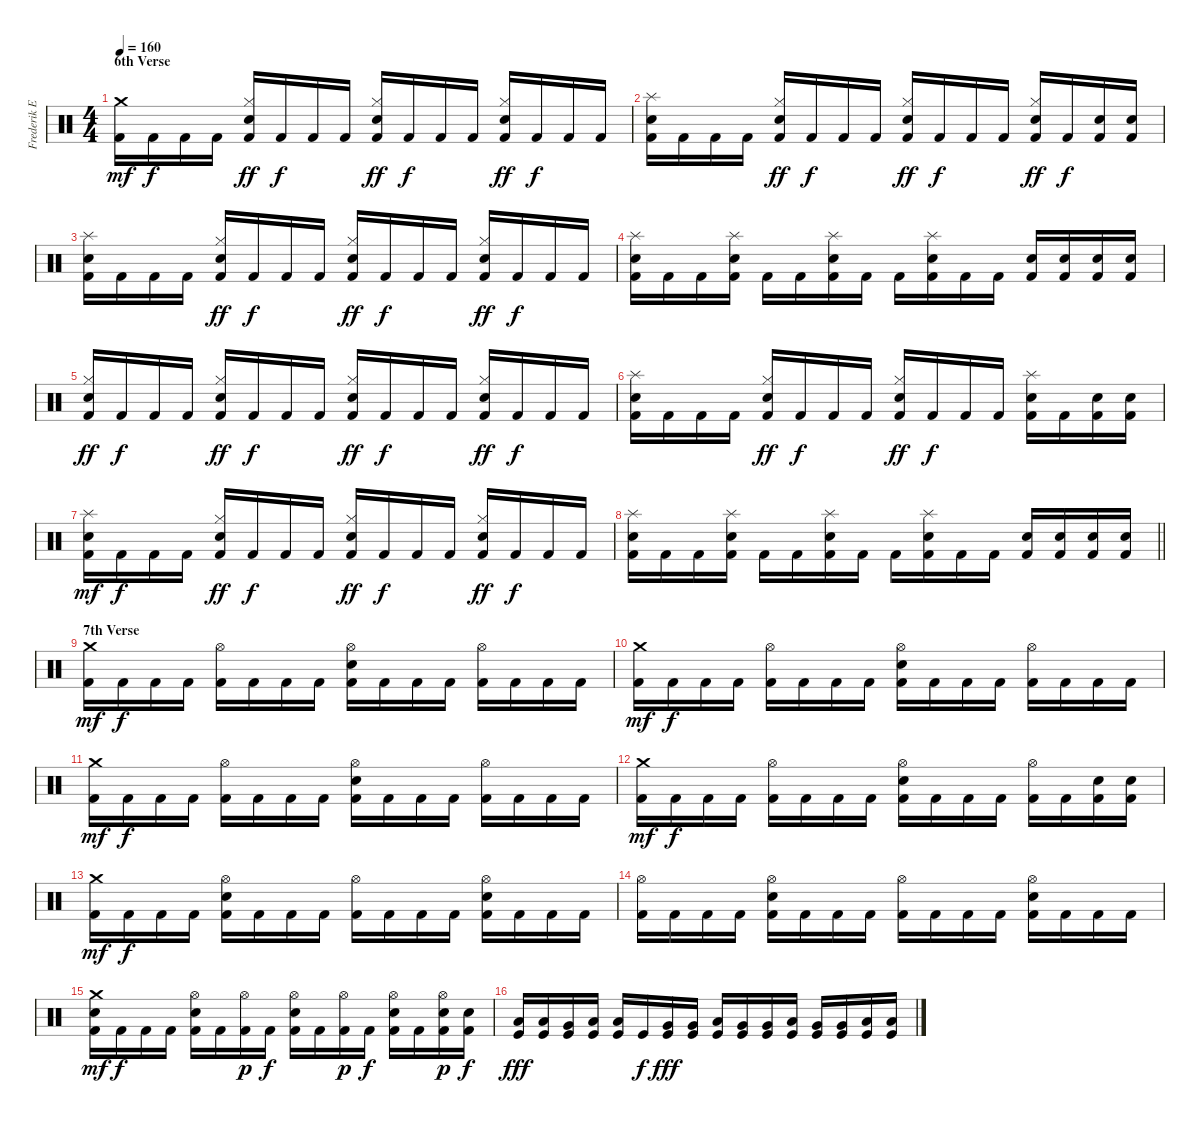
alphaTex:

\track ("Frederik Ehmke" "Frederik E") {instrument percussion}
\staff {score}
\articulation defaults
\ts (4 4)
\section ("" "6th Verse")
\tempo 160
\clef neutral
\ks c
("Crash medium (hit)" "Kick (hit) 2").16{dy mf} "Kick (hit) 2".16{dy f} "Kick (hit) 2".16 "Kick (hit) 2".16 ("Hi-Hat (closed)" "Electric Snare (hit)" "Kick (hit) 2").16{dy ff} "Kick (hit) 2".16{dy f} "Kick (hit) 2".16 "Kick (hit) 2".16 ("Hi-Hat (closed)" "Electric Snare (hit)" "Kick (hit) 2").16{dy ff} "Kick (hit) 2".16{dy f} "Kick (hit) 2".16 "Kick (hit) 2".16 ("Hi-Hat (closed)" "Electric Snare (hit)" "Kick (hit) 2").16{dy ff} "Kick (hit) 2".16{dy f} "Kick (hit) 2".16 "Kick (hit) 2".16 |
("Splash (hit)" "Electric Snare (hit)" "Kick (hit) 2").16 "Kick (hit) 2".16 "Kick (hit) 2".16 "Kick (hit) 2".16 ("Hi-Hat (closed)" "Electric Snare (hit)" "Kick (hit) 2").16{dy ff} "Kick (hit) 2".16{dy f} "Kick (hit) 2".16 "Kick (hit) 2".16 ("Hi-Hat (closed)" "Electric Snare (hit)" "Kick (hit) 2").16{dy ff} "Kick (hit) 2".16{dy f} "Kick (hit) 2".16 "Kick (hit) 2".16 ("Hi-Hat (closed)" "Electric Snare (hit)" "Kick (hit) 2").16{dy ff} "Kick (hit) 2".16{dy f} ("Electric Snare (hit)" "Kick (hit) 2").16 ("Electric Snare (hit)" "Kick (hit) 2").16 |
("Splash (hit)" "Electric Snare (hit)" "Kick (hit) 2").16 "Kick (hit) 2".16 "Kick (hit) 2".16 "Kick (hit) 2".16 ("Hi-Hat (closed)" "Electric Snare (hit)" "Kick (hit) 2").16{dy ff} "Kick (hit) 2".16{dy f} "Kick (hit) 2".16 "Kick (hit) 2".16 ("Hi-Hat (closed)" "Electric Snare (hit)" "Kick (hit) 2").16{dy ff} "Kick (hit) 2".16{dy f} "Kick (hit) 2".16 "Kick (hit) 2".16 ("Hi-Hat (closed)" "Electric Snare (hit)" "Kick (hit) 2").16{dy ff} "Kick (hit) 2".16{dy f} "Kick (hit) 2".16 "Kick (hit) 2".16 |
("Splash (hit)" "Electric Snare (hit)" "Kick (hit) 2").16 "Kick (hit) 2".16 "Kick (hit) 2".16 ("Splash (hit)" "Electric Snare (hit)" "Kick (hit) 2").16 "Kick (hit) 2".16 "Kick (hit) 2".16 ("Splash (hit)" "Electric Snare (hit)" "Kick (hit) 2").16 "Kick (hit) 2".16 "Kick (hit) 2".16 ("Splash (hit)" "Electric Snare (hit)" "Kick (hit) 2").16 "Kick (hit) 2".16 "Kick (hit) 2".16 ("Electric Snare (hit)" "Kick (hit) 2").16 ("Electric Snare (hit)" "Kick (hit) 2").16 ("Electric Snare (hit)" "Kick (hit) 2").16 ("Electric Snare (hit)" "Kick (hit) 2").16 |
("Hi-Hat (closed)" "Electric Snare (hit)" "Kick (hit) 2").16{dy ff} "Kick (hit) 2".16{dy f} "Kick (hit) 2".16 "Kick (hit) 2".16 ("Hi-Hat (closed)" "Electric Snare (hit)" "Kick (hit) 2").16{dy ff} "Kick (hit) 2".16{dy f} "Kick (hit) 2".16 "Kick (hit) 2".16 ("Hi-Hat (closed)" "Electric Snare (hit)" "Kick (hit) 2").16{dy ff} "Kick (hit) 2".16{dy f} "Kick (hit) 2".16 "Kick (hit) 2".16 ("Hi-Hat (closed)" "Electric Snare (hit)" "Kick (hit) 2").16{dy ff} "Kick (hit) 2".16{dy f} "Kick (hit) 2".16 "Kick (hit) 2".16 |
("Splash (hit)" "Electric Snare (hit)" "Kick (hit) 2").16 "Kick (hit) 2".16 "Kick (hit) 2".16 "Kick (hit) 2".16 ("Hi-Hat (closed)" "Electric Snare (hit)" "Kick (hit) 2").16{dy ff} "Kick (hit) 2".16{dy f} "Kick (hit) 2".16 "Kick (hit) 2".16 ("Hi-Hat (closed)" "Electric Snare (hit)" "Kick (hit) 2").16{dy ff} "Kick (hit) 2".16{dy f} "Kick (hit) 2".16 "Kick (hit) 2".16 ("Splash (hit)" "Electric Snare (hit)" "Kick (hit) 2").16 "Kick (hit) 2".16 ("Electric Snare (hit)" "Kick (hit) 2").16 ("Electric Snare (hit)" "Kick (hit) 2").16 |
("Splash (hit)" "Electric Snare (hit)" "Kick (hit) 2").16{dy mf} "Kick (hit) 2".16{dy f} "Kick (hit) 2".16 "Kick (hit) 2".16 ("Hi-Hat (closed)" "Electric Snare (hit)" "Kick (hit) 2").16{dy ff} "Kick (hit) 2".16{dy f} "Kick (hit) 2".16 "Kick (hit) 2".16 ("Hi-Hat (closed)" "Electric Snare (hit)" "Kick (hit) 2").16{dy ff} "Kick (hit) 2".16{dy f} "Kick (hit) 2".16 "Kick (hit) 2".16 ("Hi-Hat (closed)" "Electric Snare (hit)" "Kick (hit) 2").16{dy ff} "Kick (hit) 2".16{dy f} "Kick (hit) 2".16 "Kick (hit) 2".16 |
\barLineRight lightlight
("Splash (hit)" "Electric Snare (hit)" "Kick (hit) 2").16 "Kick (hit) 2".16 "Kick (hit) 2".16 ("Splash (hit)" "Electric Snare (hit)" "Kick (hit) 2").16 "Kick (hit) 2".16 "Kick (hit) 2".16 ("Splash (hit)" "Electric Snare (hit)" "Kick (hit) 2").16 "Kick (hit) 2".16 "Kick (hit) 2".16 ("Splash (hit)" "Electric Snare (hit)" "Kick (hit) 2").16 "Kick (hit) 2".16 "Kick (hit) 2".16 ("Electric Snare (hit)" "Kick (hit) 2").16 ("Electric Snare (hit)" "Kick (hit) 2").16 ("Electric Snare (hit)" "Kick (hit) 2").16 ("Electric Snare (hit)" "Kick (hit) 2").16 |
\section ("" "7th Verse")
("Crash medium (hit)" "Kick (hit) 2").16{dy mf} "Kick (hit) 2".16{dy f} "Kick (hit) 2".16 "Kick (hit) 2".16 ("Hi-Hat (open)" "Kick (hit) 2").16 "Kick (hit) 2".16 "Kick (hit) 2".16 "Kick (hit) 2".16 ("Hi-Hat (open)" "Electric Snare (hit)" "Kick (hit) 2").16 "Kick (hit) 2".16 "Kick (hit) 2".16 "Kick (hit) 2".16 ("Hi-Hat (open)" "Kick (hit) 2").16 "Kick (hit) 2".16 "Kick (hit) 2".16 "Kick (hit) 2".16 |
("Crash medium (hit)" "Kick (hit) 2").16{dy mf} "Kick (hit) 2".16{dy f} "Kick (hit) 2".16 "Kick (hit) 2".16 ("Hi-Hat (open)" "Kick (hit) 2").16 "Kick (hit) 2".16 "Kick (hit) 2".16 "Kick (hit) 2".16 ("Hi-Hat (open)" "Electric Snare (hit)" "Kick (hit) 2").16 "Kick (hit) 2".16 "Kick (hit) 2".16 "Kick (hit) 2".16 ("Hi-Hat (open)" "Kick (hit) 2").16 "Kick (hit) 2".16 "Kick (hit) 2".16 "Kick (hit) 2".16 |
("Crash medium (hit)" "Kick (hit) 2").16{dy mf} "Kick (hit) 2".16{dy f} "Kick (hit) 2".16 "Kick (hit) 2".16 ("Hi-Hat (open)" "Kick (hit) 2").16 "Kick (hit) 2".16 "Kick (hit) 2".16 "Kick (hit) 2".16 ("Hi-Hat (open)" "Electric Snare (hit)" "Kick (hit) 2").16 "Kick (hit) 2".16 "Kick (hit) 2".16 "Kick (hit) 2".16 ("Hi-Hat (open)" "Kick (hit) 2").16 "Kick (hit) 2".16 "Kick (hit) 2".16 "Kick (hit) 2".16 |
("Crash medium (hit)" "Kick (hit) 2").16{dy mf} "Kick (hit) 2".16{dy f} "Kick (hit) 2".16 "Kick (hit) 2".16 ("Hi-Hat (open)" "Kick (hit) 2").16 "Kick (hit) 2".16 "Kick (hit) 2".16 "Kick (hit) 2".16 ("Hi-Hat (open)" "Electric Snare (hit)" "Kick (hit) 2").16 "Kick (hit) 2".16 "Kick (hit) 2".16 "Kick (hit) 2".16 ("Hi-Hat (open)" "Kick (hit) 2").16 "Kick (hit) 2".16 ("Electric Snare (hit)" "Kick (hit) 2").16 ("Electric Snare (hit)" "Kick (hit) 2").16 |
("Crash medium (hit)" "Kick (hit) 2").16{dy mf} "Kick (hit) 2".16{dy f} "Kick (hit) 2".16 "Kick (hit) 2".16 ("Hi-Hat (open)" "Electric Snare (hit)" "Kick (hit) 2").16 "Kick (hit) 2".16 "Kick (hit) 2".16 "Kick (hit) 2".16 ("Hi-Hat (open)" "Kick (hit) 2").16 "Kick (hit) 2".16 "Kick (hit) 2".16 "Kick (hit) 2".16 ("Hi-Hat (open)" "Electric Snare (hit)" "Kick (hit) 2").16 "Kick (hit) 2".16 "Kick (hit) 2".16 "Kick (hit) 2".16 |
("Hi-Hat (open)" "Kick (hit) 2").16 "Kick (hit) 2".16 "Kick (hit) 2".16 "Kick (hit) 2".16 ("Hi-Hat (open)" "Electric Snare (hit)" "Kick (hit) 2").16 "Kick (hit) 2".16 "Kick (hit) 2".16 "Kick (hit) 2".16 ("Hi-Hat (open)" "Kick (hit) 2").16 "Kick (hit) 2".16 "Kick (hit) 2".16 "Kick (hit) 2".16 ("Hi-Hat (open)" "Electric Snare (hit)" "Kick (hit) 2").16 "Kick (hit) 2".16 "Kick (hit) 2".16 "Kick (hit) 2".16 |
("Crash medium (hit)" "Electric Snare (hit)" "Kick (hit) 2").16{dy mf} "Kick (hit) 2".16{dy f} "Kick (hit) 2".16 "Kick (hit) 2".16 ("Hi-Hat (open)" "Electric Snare (hit)" "Kick (hit) 2").16 "Kick (hit) 2".16 ("Hi-Hat (open)" "Kick (hit) 2").16{dy p} "Kick (hit) 2".16{dy f} ("Hi-Hat (open)" "Electric Snare (hit)" "Kick (hit) 2").16 "Kick (hit) 2".16 ("Hi-Hat (open)" "Kick (hit) 2").16{dy p} "Kick (hit) 2".16{dy f} ("Hi-Hat (open)" "Electric Snare (hit)" "Kick (hit) 2").16 "Kick (hit) 2".16 ("Hi-Hat (open)" "Electric Snare (hit)" "Kick (hit) 2").16{dy p} ("Electric Snare (hit)" "Kick (hit) 2").16{dy f} |
("Low Tom (hit)" "Kick (hit)").16{dy fff} ("Low Tom (hit)" "Kick (hit)").16 ("Very Low Tom (hit)" "Kick (hit)").16 ("Low Floor Tom (hit)" "Kick (hit)").16 ("Low Tom (hit)" "Kick (hit)").16 "Kick (hit)".16{dy f} ("Very Low Tom (hit)" "Kick (hit)").16{dy fff} ("Very Low Tom (hit)" "Kick (hit)").16 ("Low Floor Tom (hit)" "Kick (hit)").16 ("Very Low Tom (hit)" "Kick (hit)").16 ("Very Low Tom (hit)" "Kick (hit)").16 ("Low Floor Tom (hit)" "Kick (hit)").16 ("Very Low Tom (hit)" "Kick (hit)").16 ("Very Low Tom (hit)" "Kick (hit)").16 ("Low Floor Tom (hit)" "Kick (hit)").16 ("Low Floor Tom (hit)" "Kick (hit)").16
